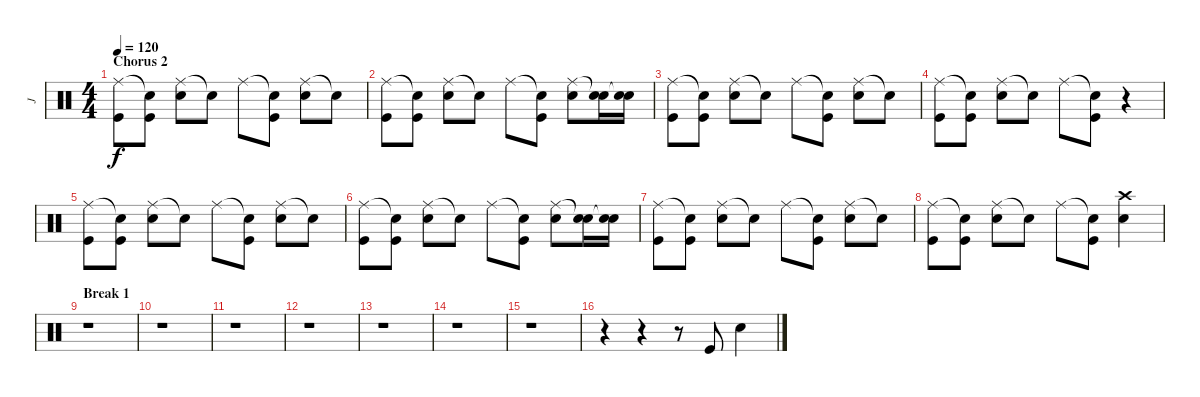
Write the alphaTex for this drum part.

\track ("J" "J") {instrument percussion}
\staff {score}
\articulation defaults
\ts (4 4)
\section ("" "Chorus 2")
\tempo 120
\clef neutral
\ks c
("Ride (middle)" "Kick (hit)").8{dy f} ("Snare (hit)"{t} "Kick (hit)").8 ("Ride (middle)" "Electric Snare (hit)").8 "Snare (hit)"{t}.8 "Ride (middle)".8 ("Snare (hit)"{t} "Kick (hit)").8 ("Ride (middle)" "Electric Snare (hit)").8 "Snare (hit)"{t}.8 |
("Ride (middle)" "Kick (hit)").8 ("Snare (hit)"{t} "Kick (hit)").8 ("Ride (middle)" "Electric Snare (hit)").8 "Snare (hit)"{t}.8 "Ride (middle)".8 ("Snare (hit)"{t} "Kick (hit)").8 ("Ride (middle)" "Electric Snare (hit)").8 ("Snare (hit)"{t} "Electric Snare (hit)").16 ("Snare (hit)"{t} "Electric Snare (hit)").16 |
("Ride (middle)" "Kick (hit)").8 ("Snare (hit)"{t} "Kick (hit)").8 ("Ride (middle)" "Electric Snare (hit)").8 "Snare (hit)"{t}.8 "Ride (middle)".8 ("Snare (hit)"{t} "Kick (hit)").8 ("Ride (middle)" "Electric Snare (hit)").8 "Snare (hit)"{t}.8 |
("Ride (middle)" "Kick (hit)").8 ("Snare (hit)"{t} "Kick (hit)").8 ("Ride (middle)" "Electric Snare (hit)").8 "Snare (hit)"{t}.8 "Ride (middle)".8 ("Snare (hit)"{t} "Kick (hit)").8 r.4 |
("Ride (middle)" "Kick (hit)").8 ("Snare (hit)"{t} "Kick (hit)").8 ("Ride (middle)" "Electric Snare (hit)").8 "Snare (hit)"{t}.8 "Ride (middle)".8 ("Snare (hit)"{t} "Kick (hit)").8 ("Ride (middle)" "Electric Snare (hit)").8 "Snare (hit)"{t}.8 |
("Ride (middle)" "Kick (hit)").8 ("Snare (hit)"{t} "Kick (hit)").8 ("Ride (middle)" "Electric Snare (hit)").8 "Snare (hit)"{t}.8 "Ride (middle)".8 ("Snare (hit)"{t} "Kick (hit)").8 ("Ride (middle)" "Electric Snare (hit)").8 ("Snare (hit)"{t} "Electric Snare (hit)").16 ("Snare (hit)"{t} "Electric Snare (hit)").16 |
("Ride (middle)" "Kick (hit)").8 ("Snare (hit)"{t} "Kick (hit)").8 ("Ride (middle)" "Electric Snare (hit)").8 "Snare (hit)"{t}.8 "Ride (middle)".8 ("Snare (hit)"{t} "Kick (hit)").8 ("Ride (middle)" "Electric Snare (hit)").8 "Snare (hit)"{t}.8 |
("Ride (middle)" "Kick (hit)").8 ("Snare (hit)"{t} "Kick (hit)").8 ("Ride (middle)" "Electric Snare (hit)").8 "Snare (hit)"{t}.8 "Ride (middle)".8 ("Snare (hit)"{t} "Kick (hit)").8 ("Crash high (hit)" "Electric Snare (hit)").4 |
\section ("" "Break 1")
r.1 |
r.1 |
r.1 |
r.1 |
r.1 |
r.1 |
r.1 |
r.4 r.4 r.8 "Kick (hit)".8 "Electric Snare (hit)".4
